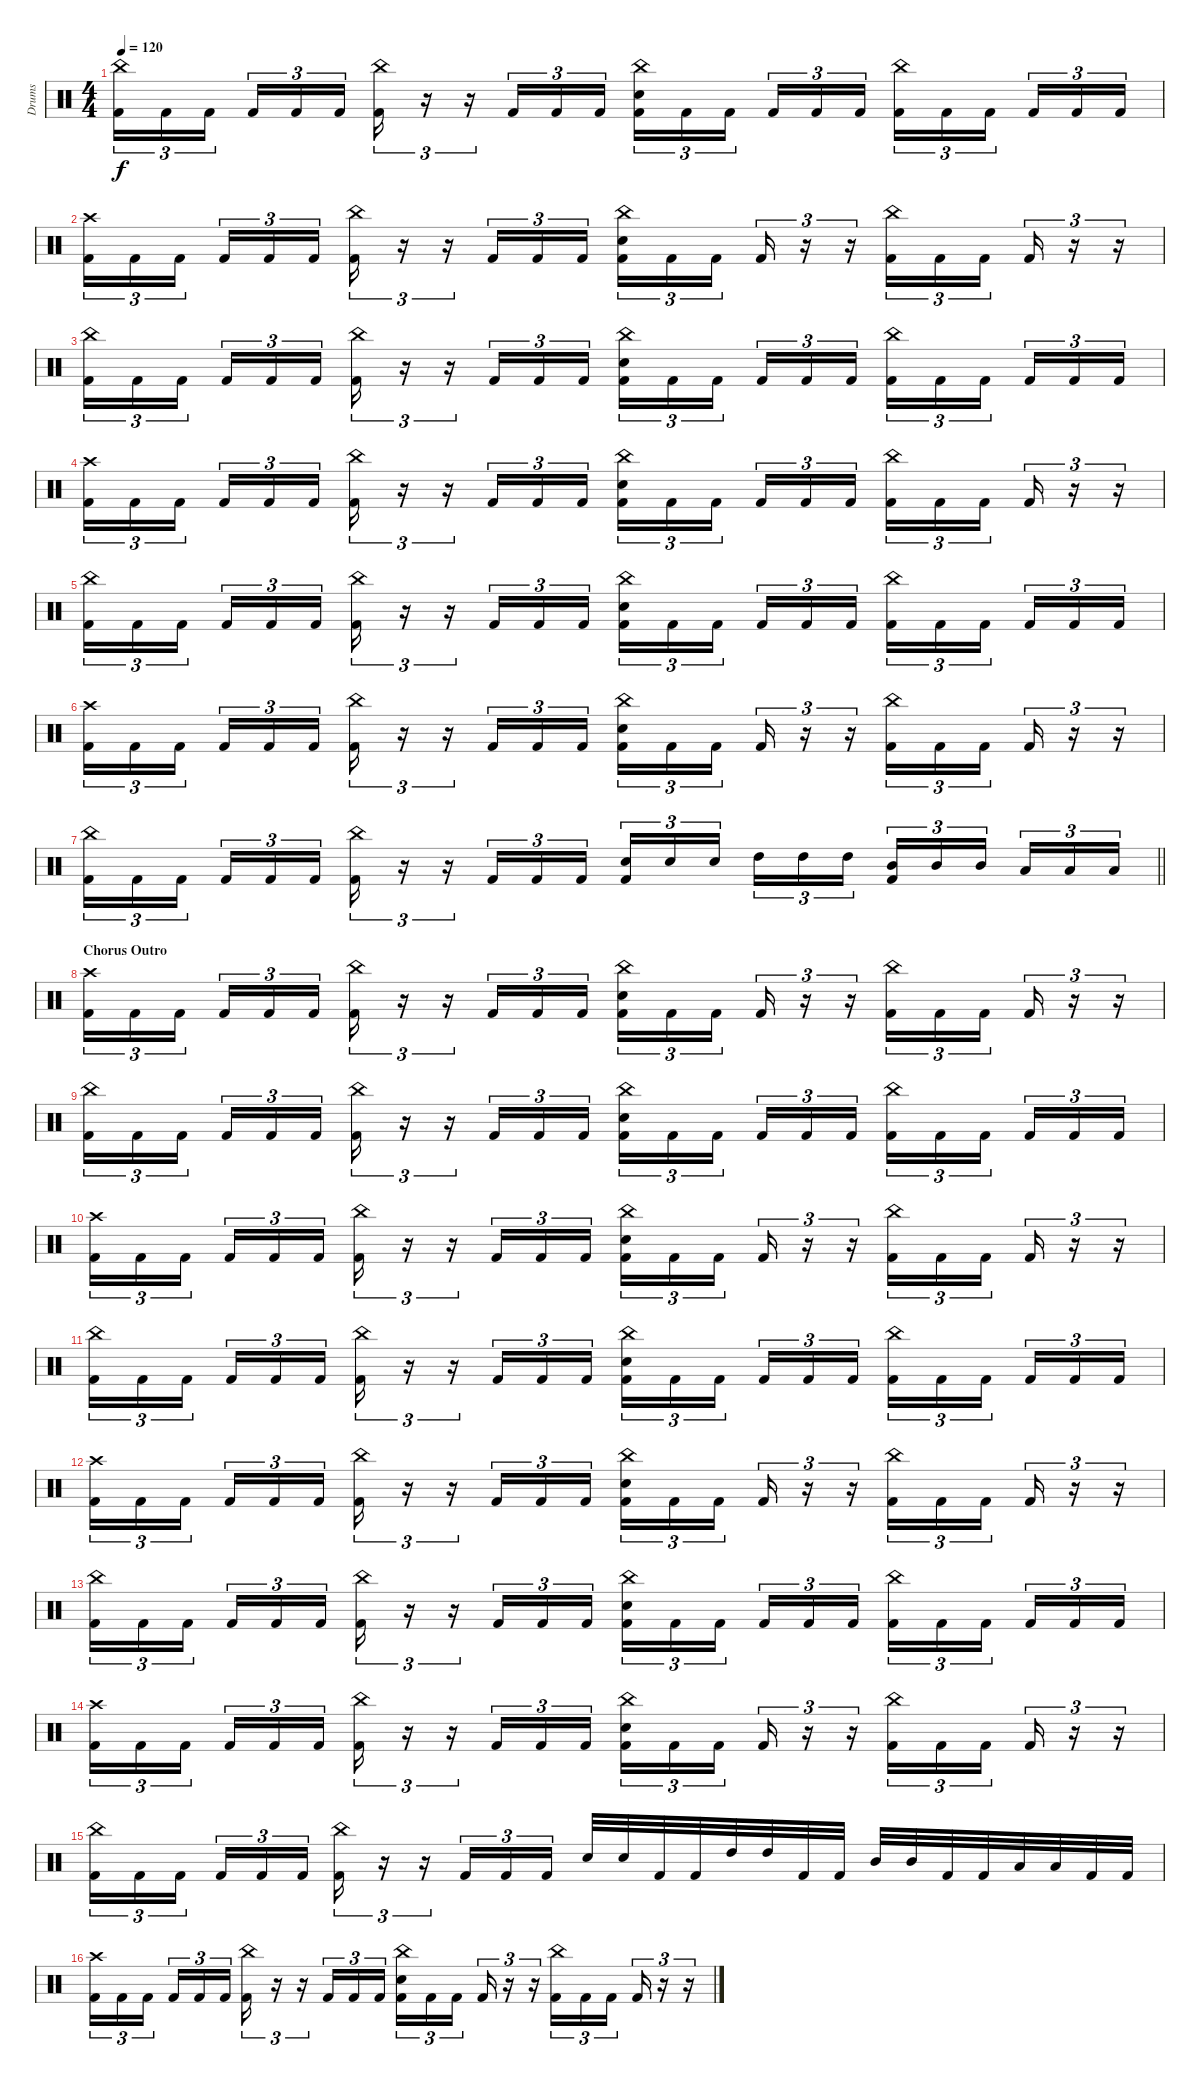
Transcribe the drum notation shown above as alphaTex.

\track ("Drums" "Drums") {instrument percussion}
\staff {score}
\articulation defaults
\ts (4 4)
\tempo 120
\clef neutral
\ks c
("China (hit)" "Kick (hit) 2").16{tu (3 2) dy f} "Kick (hit) 2".16{tu (3 2)} "Kick (hit) 2".16{tu (3 2) beam splitsecondary} "Kick (hit) 2".16{tu (3 2)} "Kick (hit) 2".16{tu (3 2)} "Kick (hit) 2".16{tu (3 2)} ("China (hit)" "Kick (hit) 2").16{tu (3 2)} r.16{tu (3 2)} r.16{tu (3 2)} "Kick (hit) 2".16{tu (3 2)} "Kick (hit) 2".16{tu (3 2)} "Kick (hit) 2".16{tu (3 2)} ("China (hit)" "Snare (hit) 2" "Kick (hit) 2").16{tu (3 2)} "Kick (hit) 2".16{tu (3 2)} "Kick (hit) 2".16{tu (3 2) beam splitsecondary} "Kick (hit) 2".16{tu (3 2)} "Kick (hit) 2".16{tu (3 2)} "Kick (hit) 2".16{tu (3 2)} ("China (hit)" "Kick (hit) 2").16{tu (3 2)} "Kick (hit) 2".16{tu (3 2)} "Kick (hit) 2".16{tu (3 2) beam splitsecondary} "Kick (hit) 2".16{tu (3 2)} "Kick (hit) 2".16{tu (3 2)} "Kick (hit) 2".16{tu (3 2)} |
("Crash high (hit)" "Kick (hit) 2").16{tu (3 2)} "Kick (hit) 2".16{tu (3 2)} "Kick (hit) 2".16{tu (3 2) beam splitsecondary} "Kick (hit) 2".16{tu (3 2)} "Kick (hit) 2".16{tu (3 2)} "Kick (hit) 2".16{tu (3 2)} ("China (hit)" "Kick (hit) 2").16{tu (3 2)} r.16{tu (3 2)} r.16{tu (3 2)} "Kick (hit) 2".16{tu (3 2)} "Kick (hit) 2".16{tu (3 2)} "Kick (hit) 2".16{tu (3 2)} ("China (hit)" "Snare (hit) 2" "Kick (hit) 2").16{tu (3 2)} "Kick (hit) 2".16{tu (3 2)} "Kick (hit) 2".16{tu (3 2) beam splitsecondary} "Kick (hit) 2".16{tu (3 2)} r.16{tu (3 2)} r.16{tu (3 2)} ("China (hit)" "Kick (hit) 2").16{tu (3 2)} "Kick (hit) 2".16{tu (3 2)} "Kick (hit) 2".16{tu (3 2) beam splitsecondary} "Kick (hit) 2".16{tu (3 2)} r.16{tu (3 2)} r.16{tu (3 2)} |
("China (hit)" "Kick (hit) 2").16{tu (3 2)} "Kick (hit) 2".16{tu (3 2)} "Kick (hit) 2".16{tu (3 2) beam splitsecondary} "Kick (hit) 2".16{tu (3 2)} "Kick (hit) 2".16{tu (3 2)} "Kick (hit) 2".16{tu (3 2)} ("China (hit)" "Kick (hit) 2").16{tu (3 2)} r.16{tu (3 2)} r.16{tu (3 2)} "Kick (hit) 2".16{tu (3 2)} "Kick (hit) 2".16{tu (3 2)} "Kick (hit) 2".16{tu (3 2)} ("China (hit)" "Snare (hit) 2" "Kick (hit) 2").16{tu (3 2)} "Kick (hit) 2".16{tu (3 2)} "Kick (hit) 2".16{tu (3 2) beam splitsecondary} "Kick (hit) 2".16{tu (3 2)} "Kick (hit) 2".16{tu (3 2)} "Kick (hit) 2".16{tu (3 2)} ("China (hit)" "Kick (hit) 2").16{tu (3 2)} "Kick (hit) 2".16{tu (3 2)} "Kick (hit) 2".16{tu (3 2) beam splitsecondary} "Kick (hit) 2".16{tu (3 2)} "Kick (hit) 2".16{tu (3 2)} "Kick (hit) 2".16{tu (3 2)} |
("Crash high (hit)" "Kick (hit) 2").16{tu (3 2)} "Kick (hit) 2".16{tu (3 2)} "Kick (hit) 2".16{tu (3 2) beam splitsecondary} "Kick (hit) 2".16{tu (3 2)} "Kick (hit) 2".16{tu (3 2)} "Kick (hit) 2".16{tu (3 2)} ("China (hit)" "Kick (hit) 2").16{tu (3 2)} r.16{tu (3 2)} r.16{tu (3 2)} "Kick (hit) 2".16{tu (3 2)} "Kick (hit) 2".16{tu (3 2)} "Kick (hit) 2".16{tu (3 2)} ("China (hit)" "Snare (hit) 2" "Kick (hit) 2").16{tu (3 2)} "Kick (hit) 2".16{tu (3 2)} "Kick (hit) 2".16{tu (3 2) beam splitsecondary} "Kick (hit) 2".16{tu (3 2)} "Kick (hit) 2".16{tu (3 2)} "Kick (hit) 2".16{tu (3 2)} ("China (hit)" "Kick (hit) 2").16{tu (3 2)} "Kick (hit) 2".16{tu (3 2)} "Kick (hit) 2".16{tu (3 2) beam splitsecondary} "Kick (hit) 2".16{tu (3 2)} r.16{tu (3 2)} r.16{tu (3 2)} |
("China (hit)" "Kick (hit) 2").16{tu (3 2)} "Kick (hit) 2".16{tu (3 2)} "Kick (hit) 2".16{tu (3 2) beam splitsecondary} "Kick (hit) 2".16{tu (3 2)} "Kick (hit) 2".16{tu (3 2)} "Kick (hit) 2".16{tu (3 2)} ("China (hit)" "Kick (hit) 2").16{tu (3 2)} r.16{tu (3 2)} r.16{tu (3 2)} "Kick (hit) 2".16{tu (3 2)} "Kick (hit) 2".16{tu (3 2)} "Kick (hit) 2".16{tu (3 2)} ("China (hit)" "Snare (hit) 2" "Kick (hit) 2").16{tu (3 2)} "Kick (hit) 2".16{tu (3 2)} "Kick (hit) 2".16{tu (3 2) beam splitsecondary} "Kick (hit) 2".16{tu (3 2)} "Kick (hit) 2".16{tu (3 2)} "Kick (hit) 2".16{tu (3 2)} ("China (hit)" "Kick (hit) 2").16{tu (3 2)} "Kick (hit) 2".16{tu (3 2)} "Kick (hit) 2".16{tu (3 2) beam splitsecondary} "Kick (hit) 2".16{tu (3 2)} "Kick (hit) 2".16{tu (3 2)} "Kick (hit) 2".16{tu (3 2)} |
("Crash high (hit)" "Kick (hit) 2").16{tu (3 2)} "Kick (hit) 2".16{tu (3 2)} "Kick (hit) 2".16{tu (3 2) beam splitsecondary} "Kick (hit) 2".16{tu (3 2)} "Kick (hit) 2".16{tu (3 2)} "Kick (hit) 2".16{tu (3 2)} ("China (hit)" "Kick (hit) 2").16{tu (3 2)} r.16{tu (3 2)} r.16{tu (3 2)} "Kick (hit) 2".16{tu (3 2)} "Kick (hit) 2".16{tu (3 2)} "Kick (hit) 2".16{tu (3 2)} ("China (hit)" "Snare (hit) 2" "Kick (hit) 2").16{tu (3 2)} "Kick (hit) 2".16{tu (3 2)} "Kick (hit) 2".16{tu (3 2) beam splitsecondary} "Kick (hit) 2".16{tu (3 2)} r.16{tu (3 2)} r.16{tu (3 2)} ("China (hit)" "Kick (hit) 2").16{tu (3 2)} "Kick (hit) 2".16{tu (3 2)} "Kick (hit) 2".16{tu (3 2) beam splitsecondary} "Kick (hit) 2".16{tu (3 2)} r.16{tu (3 2)} r.16{tu (3 2)} |
\barLineRight lightlight
("China (hit)" "Kick (hit) 2").16{tu (3 2)} "Kick (hit) 2".16{tu (3 2)} "Kick (hit) 2".16{tu (3 2) beam splitsecondary} "Kick (hit) 2".16{tu (3 2)} "Kick (hit) 2".16{tu (3 2)} "Kick (hit) 2".16{tu (3 2)} ("China (hit)" "Kick (hit) 2").16{tu (3 2)} r.16{tu (3 2)} r.16{tu (3 2)} "Kick (hit) 2".16{tu (3 2)} "Kick (hit) 2".16{tu (3 2)} "Kick (hit) 2".16{tu (3 2)} ("Snare (hit) 2" "Kick (hit) 2").16{tu (3 2)} "Snare (hit) 2".16{tu (3 2)} "Snare (hit) 2".16{tu (3 2) beam splitsecondary} "High Tom (hit)".16{tu (3 2)} "High Tom (hit)".16{tu (3 2)} "High Tom (hit)".16{tu (3 2)} ("Mid Tom (hit)" "Kick (hit) 2").16{tu (3 2)} "Mid Tom (hit)".16{tu (3 2)} "Mid Tom (hit)".16{tu (3 2) beam splitsecondary} "Low Tom (hit)".16{tu (3 2)} "Low Tom (hit)".16{tu (3 2)} "Low Tom (hit)".16{tu (3 2)} |
\section ("" "Chorus Outro")
("Crash high (hit)" "Kick (hit) 2").16{tu (3 2)} "Kick (hit) 2".16{tu (3 2)} "Kick (hit) 2".16{tu (3 2) beam splitsecondary} "Kick (hit) 2".16{tu (3 2)} "Kick (hit) 2".16{tu (3 2)} "Kick (hit) 2".16{tu (3 2)} ("China (hit)" "Kick (hit) 2").16{tu (3 2)} r.16{tu (3 2)} r.16{tu (3 2)} "Kick (hit) 2".16{tu (3 2)} "Kick (hit) 2".16{tu (3 2)} "Kick (hit) 2".16{tu (3 2)} ("China (hit)" "Snare (hit) 2" "Kick (hit) 2").16{tu (3 2)} "Kick (hit) 2".16{tu (3 2)} "Kick (hit) 2".16{tu (3 2) beam splitsecondary} "Kick (hit) 2".16{tu (3 2)} r.16{tu (3 2)} r.16{tu (3 2)} ("China (hit)" "Kick (hit) 2").16{tu (3 2)} "Kick (hit) 2".16{tu (3 2)} "Kick (hit) 2".16{tu (3 2) beam splitsecondary} "Kick (hit) 2".16{tu (3 2)} r.16{tu (3 2)} r.16{tu (3 2)} |
("China (hit)" "Kick (hit) 2").16{tu (3 2)} "Kick (hit) 2".16{tu (3 2)} "Kick (hit) 2".16{tu (3 2) beam splitsecondary} "Kick (hit) 2".16{tu (3 2)} "Kick (hit) 2".16{tu (3 2)} "Kick (hit) 2".16{tu (3 2)} ("China (hit)" "Kick (hit) 2").16{tu (3 2)} r.16{tu (3 2)} r.16{tu (3 2)} "Kick (hit) 2".16{tu (3 2)} "Kick (hit) 2".16{tu (3 2)} "Kick (hit) 2".16{tu (3 2)} ("China (hit)" "Snare (hit) 2" "Kick (hit) 2").16{tu (3 2)} "Kick (hit) 2".16{tu (3 2)} "Kick (hit) 2".16{tu (3 2) beam splitsecondary} "Kick (hit) 2".16{tu (3 2)} "Kick (hit) 2".16{tu (3 2)} "Kick (hit) 2".16{tu (3 2)} ("China (hit)" "Kick (hit) 2").16{tu (3 2)} "Kick (hit) 2".16{tu (3 2)} "Kick (hit) 2".16{tu (3 2) beam splitsecondary} "Kick (hit) 2".16{tu (3 2)} "Kick (hit) 2".16{tu (3 2)} "Kick (hit) 2".16{tu (3 2)} |
("Crash high (hit)" "Kick (hit) 2").16{tu (3 2)} "Kick (hit) 2".16{tu (3 2)} "Kick (hit) 2".16{tu (3 2) beam splitsecondary} "Kick (hit) 2".16{tu (3 2)} "Kick (hit) 2".16{tu (3 2)} "Kick (hit) 2".16{tu (3 2)} ("China (hit)" "Kick (hit) 2").16{tu (3 2)} r.16{tu (3 2)} r.16{tu (3 2)} "Kick (hit) 2".16{tu (3 2)} "Kick (hit) 2".16{tu (3 2)} "Kick (hit) 2".16{tu (3 2)} ("China (hit)" "Snare (hit) 2" "Kick (hit) 2").16{tu (3 2)} "Kick (hit) 2".16{tu (3 2)} "Kick (hit) 2".16{tu (3 2) beam splitsecondary} "Kick (hit) 2".16{tu (3 2)} r.16{tu (3 2)} r.16{tu (3 2)} ("China (hit)" "Kick (hit) 2").16{tu (3 2)} "Kick (hit) 2".16{tu (3 2)} "Kick (hit) 2".16{tu (3 2) beam splitsecondary} "Kick (hit) 2".16{tu (3 2)} r.16{tu (3 2)} r.16{tu (3 2)} |
("China (hit)" "Kick (hit) 2").16{tu (3 2)} "Kick (hit) 2".16{tu (3 2)} "Kick (hit) 2".16{tu (3 2) beam splitsecondary} "Kick (hit) 2".16{tu (3 2)} "Kick (hit) 2".16{tu (3 2)} "Kick (hit) 2".16{tu (3 2)} ("China (hit)" "Kick (hit) 2").16{tu (3 2)} r.16{tu (3 2)} r.16{tu (3 2)} "Kick (hit) 2".16{tu (3 2)} "Kick (hit) 2".16{tu (3 2)} "Kick (hit) 2".16{tu (3 2)} ("China (hit)" "Snare (hit) 2" "Kick (hit) 2").16{tu (3 2)} "Kick (hit) 2".16{tu (3 2)} "Kick (hit) 2".16{tu (3 2) beam splitsecondary} "Kick (hit) 2".16{tu (3 2)} "Kick (hit) 2".16{tu (3 2)} "Kick (hit) 2".16{tu (3 2)} ("China (hit)" "Kick (hit) 2").16{tu (3 2)} "Kick (hit) 2".16{tu (3 2)} "Kick (hit) 2".16{tu (3 2) beam splitsecondary} "Kick (hit) 2".16{tu (3 2)} "Kick (hit) 2".16{tu (3 2)} "Kick (hit) 2".16{tu (3 2)} |
("Crash high (hit)" "Kick (hit) 2").16{tu (3 2)} "Kick (hit) 2".16{tu (3 2)} "Kick (hit) 2".16{tu (3 2) beam splitsecondary} "Kick (hit) 2".16{tu (3 2)} "Kick (hit) 2".16{tu (3 2)} "Kick (hit) 2".16{tu (3 2)} ("China (hit)" "Kick (hit) 2").16{tu (3 2)} r.16{tu (3 2)} r.16{tu (3 2)} "Kick (hit) 2".16{tu (3 2)} "Kick (hit) 2".16{tu (3 2)} "Kick (hit) 2".16{tu (3 2)} ("China (hit)" "Snare (hit) 2" "Kick (hit) 2").16{tu (3 2)} "Kick (hit) 2".16{tu (3 2)} "Kick (hit) 2".16{tu (3 2) beam splitsecondary} "Kick (hit) 2".16{tu (3 2)} r.16{tu (3 2)} r.16{tu (3 2)} ("China (hit)" "Kick (hit) 2").16{tu (3 2)} "Kick (hit) 2".16{tu (3 2)} "Kick (hit) 2".16{tu (3 2) beam splitsecondary} "Kick (hit) 2".16{tu (3 2)} r.16{tu (3 2)} r.16{tu (3 2)} |
("China (hit)" "Kick (hit) 2").16{tu (3 2)} "Kick (hit) 2".16{tu (3 2)} "Kick (hit) 2".16{tu (3 2) beam splitsecondary} "Kick (hit) 2".16{tu (3 2)} "Kick (hit) 2".16{tu (3 2)} "Kick (hit) 2".16{tu (3 2)} ("China (hit)" "Kick (hit) 2").16{tu (3 2)} r.16{tu (3 2)} r.16{tu (3 2)} "Kick (hit) 2".16{tu (3 2)} "Kick (hit) 2".16{tu (3 2)} "Kick (hit) 2".16{tu (3 2)} ("China (hit)" "Snare (hit) 2" "Kick (hit) 2").16{tu (3 2)} "Kick (hit) 2".16{tu (3 2)} "Kick (hit) 2".16{tu (3 2) beam splitsecondary} "Kick (hit) 2".16{tu (3 2)} "Kick (hit) 2".16{tu (3 2)} "Kick (hit) 2".16{tu (3 2)} ("China (hit)" "Kick (hit) 2").16{tu (3 2)} "Kick (hit) 2".16{tu (3 2)} "Kick (hit) 2".16{tu (3 2) beam splitsecondary} "Kick (hit) 2".16{tu (3 2)} "Kick (hit) 2".16{tu (3 2)} "Kick (hit) 2".16{tu (3 2)} |
("Crash high (hit)" "Kick (hit) 2").16{tu (3 2)} "Kick (hit) 2".16{tu (3 2)} "Kick (hit) 2".16{tu (3 2) beam splitsecondary} "Kick (hit) 2".16{tu (3 2)} "Kick (hit) 2".16{tu (3 2)} "Kick (hit) 2".16{tu (3 2)} ("China (hit)" "Kick (hit) 2").16{tu (3 2)} r.16{tu (3 2)} r.16{tu (3 2)} "Kick (hit) 2".16{tu (3 2)} "Kick (hit) 2".16{tu (3 2)} "Kick (hit) 2".16{tu (3 2)} ("China (hit)" "Snare (hit) 2" "Kick (hit) 2").16{tu (3 2)} "Kick (hit) 2".16{tu (3 2)} "Kick (hit) 2".16{tu (3 2) beam splitsecondary} "Kick (hit) 2".16{tu (3 2)} r.16{tu (3 2)} r.16{tu (3 2)} ("China (hit)" "Kick (hit) 2").16{tu (3 2)} "Kick (hit) 2".16{tu (3 2)} "Kick (hit) 2".16{tu (3 2) beam splitsecondary} "Kick (hit) 2".16{tu (3 2)} r.16{tu (3 2)} r.16{tu (3 2)} |
("China (hit)" "Kick (hit) 2").16{tu (3 2)} "Kick (hit) 2".16{tu (3 2)} "Kick (hit) 2".16{tu (3 2) beam splitsecondary} "Kick (hit) 2".16{tu (3 2)} "Kick (hit) 2".16{tu (3 2)} "Kick (hit) 2".16{tu (3 2)} ("China (hit)" "Kick (hit) 2").16{tu (3 2)} r.16{tu (3 2)} r.16{tu (3 2)} "Kick (hit) 2".16{tu (3 2)} "Kick (hit) 2".16{tu (3 2)} "Kick (hit) 2".16{tu (3 2)} "Snare (hit) 2".32 "Snare (hit) 2".32 "Kick (hit) 2".32 "Kick (hit) 2".32 "High Tom (hit)".32 "High Tom (hit)".32 "Kick (hit) 2".32 "Kick (hit) 2".32 "Mid Tom (hit)".32 "Mid Tom (hit)".32 "Kick (hit) 2".32 "Kick (hit) 2".32 "Low Tom (hit)".32 "Low Tom (hit)".32 "Kick (hit) 2".32 "Kick (hit) 2".32 |
("Crash high (hit)" "Kick (hit) 2").16{tu (3 2)} "Kick (hit) 2".16{tu (3 2)} "Kick (hit) 2".16{tu (3 2) beam splitsecondary} "Kick (hit) 2".16{tu (3 2)} "Kick (hit) 2".16{tu (3 2)} "Kick (hit) 2".16{tu (3 2)} ("China (hit)" "Kick (hit) 2").16{tu (3 2)} r.16{tu (3 2)} r.16{tu (3 2)} "Kick (hit) 2".16{tu (3 2)} "Kick (hit) 2".16{tu (3 2)} "Kick (hit) 2".16{tu (3 2)} ("China (hit)" "Snare (hit) 2" "Kick (hit) 2").16{tu (3 2)} "Kick (hit) 2".16{tu (3 2)} "Kick (hit) 2".16{tu (3 2) beam splitsecondary} "Kick (hit) 2".16{tu (3 2)} r.16{tu (3 2)} r.16{tu (3 2)} ("China (hit)" "Kick (hit) 2").16{tu (3 2)} "Kick (hit) 2".16{tu (3 2)} "Kick (hit) 2".16{tu (3 2) beam splitsecondary} "Kick (hit) 2".16{tu (3 2)} r.16{tu (3 2)} r.16{tu (3 2)}
